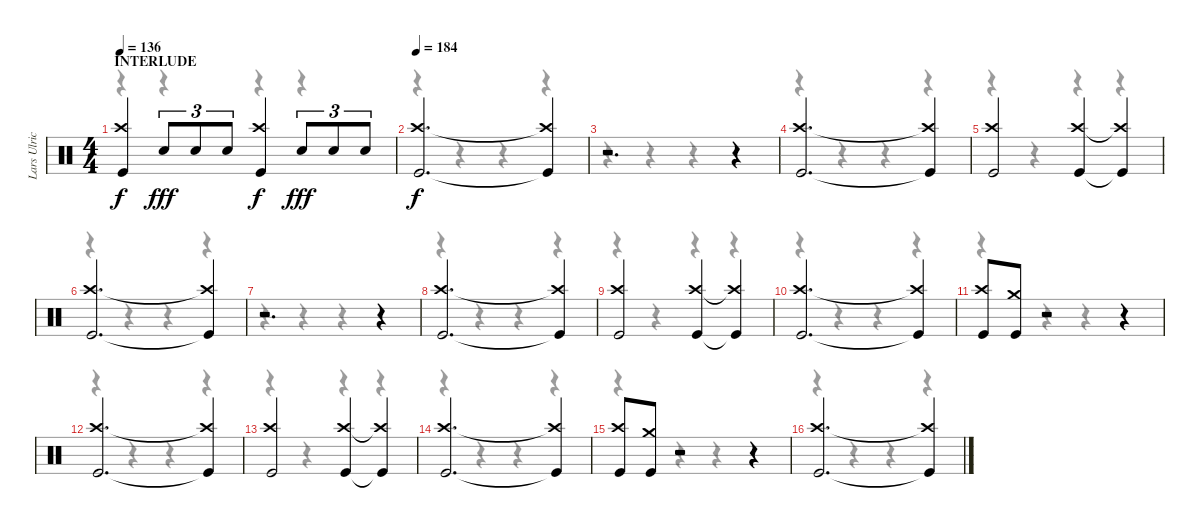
\track ("Lars Ulrich" "Lars Ulric") {instrument percussion}
\staff {score}
\articulation defaults
\voice
\ts (4 4)
\section ("" "INTERLUDE")
\tempo 136
\clef neutral
\ks c
("Crash high (hit)" "Kick (hit)").4{dy f} "Snare (hit) 2".8{tu (3 2) dy fff} "Snare (hit) 2".8{tu (3 2)} "Snare (hit) 2".8{tu (3 2)} ("Crash high (hit)" "Kick (hit)").4{dy f} "Snare (hit) 2".8{tu (3 2) dy fff} "Snare (hit) 2".8{tu (3 2)} "Snare (hit) 2".8{tu (3 2)} |
\tempo 184
("Crash high (hit)" "Kick (hit)").2{d dy f} ("Crash high (hit)"{t} "Kick (hit)"{t}).4 |
r.2{d} r.4 |
("Crash high (hit)" "Kick (hit)").2{d} ("Crash high (hit)"{t} "Kick (hit)"{t}).4 |
("Crash high (hit)" "Kick (hit)").2 ("Crash high (hit)" "Kick (hit)").4 ("Crash high (hit)"{t} "Kick (hit)"{t}).4 |
("Crash high (hit)" "Kick (hit)").2{d} ("Crash high (hit)"{t} "Kick (hit)"{t}).4 |
r.2{d} r.4 |
("Crash high (hit)" "Kick (hit)").2{d} ("Crash high (hit)"{t} "Kick (hit)"{t}).4 |
("Crash high (hit)" "Kick (hit)").2 ("Crash high (hit)" "Kick (hit)").4 ("Crash high (hit)"{t} "Kick (hit)"{t}).4 |
("Crash high (hit)" "Kick (hit)").2{d} ("Crash high (hit)"{t} "Kick (hit)"{t}).4 |
("Crash high (hit)" "Kick (hit)").8 ("Crash medium (hit)" "Kick (hit)").8 r.2 r.4 |
("Crash high (hit)" "Kick (hit)").2{d} ("Crash high (hit)"{t} "Kick (hit)"{t}).4 |
("Crash high (hit)" "Kick (hit)").2 ("Crash high (hit)" "Kick (hit)").4 ("Crash high (hit)"{t} "Kick (hit)"{t}).4 |
("Crash high (hit)" "Kick (hit)").2{d} ("Crash high (hit)"{t} "Kick (hit)"{t}).4 |
("Crash high (hit)" "Kick (hit)").8 ("Crash medium (hit)" "Kick (hit)").8 r.2 r.4 |
("Crash high (hit)" "Kick (hit)").2{d} ("Crash high (hit)"{t} "Kick (hit)"{t}).4
\voice
\clef neutral
\ottava regular
\simile none
\ks c
r.4{dy f} r.4 r.4 r.4 |
r.4 r.4 r.4 r.4 |
r.4 r.4 r.4 r.4 |
r.4 r.4 r.4 r.4 |
r.4 r.4 r.4 r.4 |
r.4 r.4 r.4 r.4 |
r.4 r.4 r.4 r.4 |
r.4 r.4 r.4 r.4 |
r.4 r.4 r.4 r.4 |
r.4 r.4 r.4 r.4 |
r.4 r.4 r.4 r.4 |
r.4 r.4 r.4 r.4 |
r.4 r.4 r.4 r.4 |
r.4 r.4 r.4 r.4 |
r.4 r.4 r.4 r.4 |
r.4 r.4 r.4 r.4
